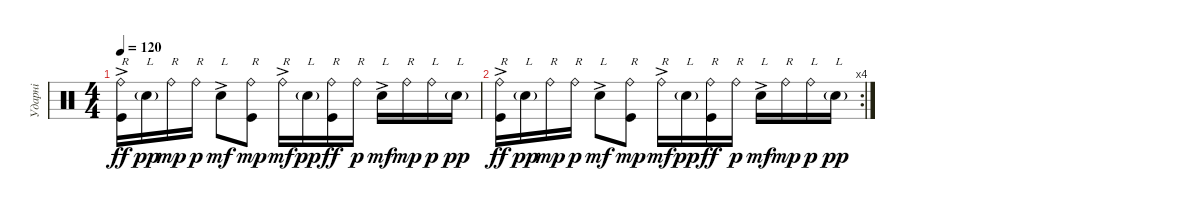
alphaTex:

\track ("Ударні" "Ударні") {instrument percussion}
\staff {score}
\articulation defaults
\ts (4 4)
\tempo 120
\clef neutral
\ks c
("Ride (bell)"{ac} "Kick (hit)").16{txt "R" dy ff} "Snare (hit) 2"{g}.16{txt "L" dy pp} "Ride (bell)".16{txt "R" dy mp} "Ride (bell)".16{txt "R" dy p} "Snare (hit) 2"{ac}.8{txt "L" dy mf} ("Ride (bell)" "Kick (hit)").8{txt "R" dy mp} "Ride (bell)"{ac}.16{txt "R" dy mf} "Snare (hit) 2"{g}.16{txt "L" dy pp} ("Ride (bell)" "Kick (hit)").16{txt "R" dy ff} "Ride (bell)".16{txt "R" dy p} "Snare (hit) 2"{ac}.16{txt "L" dy mf} "Ride (bell)".16{txt "R" dy mp} "Ride (bell)".16{txt "L" dy p} "Snare (hit) 2"{g}.16{txt "L" dy pp} |
\rc 4
("Ride (bell)"{ac} "Kick (hit)").16{txt "R" dy ff} "Snare (hit) 2"{g}.16{txt "L" dy pp} "Ride (bell)".16{txt "R" dy mp} "Ride (bell)".16{txt "R" dy p} "Snare (hit) 2"{ac}.8{txt "L" dy mf} ("Ride (bell)" "Kick (hit)").8{txt "R" dy mp} "Ride (bell)"{ac}.16{txt "R" dy mf} "Snare (hit) 2"{g}.16{txt "L" dy pp} ("Ride (bell)" "Kick (hit)").16{txt "R" dy ff} "Ride (bell)".16{txt "R" dy p} "Snare (hit) 2"{ac}.16{txt "L" dy mf} "Ride (bell)".16{txt "R" dy mp} "Ride (bell)".16{txt "L" dy p} "Snare (hit) 2"{g}.16{txt "L" dy pp}
